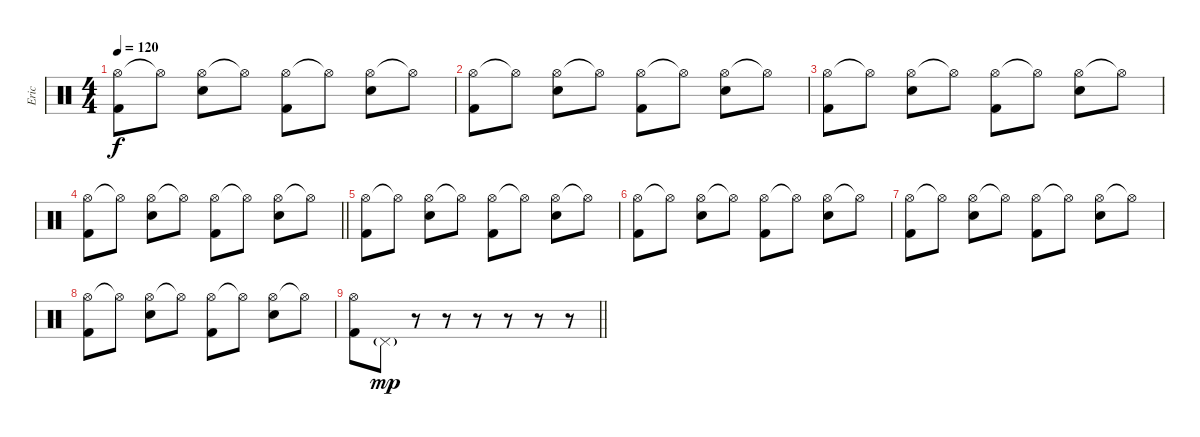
\track ("Eric" "Eric") {instrument percussion}
\staff {score}
\articulation defaults
\ts (4 4)
\tempo 120
\clef neutral
\ks c
("Hi-Hat (open)" "Kick (hit) 2").8{dy f} "Hi-Hat (open)"{t}.8 ("Hi-Hat (open)" "Snare (hit) 2").8 "Hi-Hat (open)"{t}.8 ("Hi-Hat (open)" "Kick (hit) 2").8 "Hi-Hat (open)"{t}.8 ("Hi-Hat (open)" "Snare (hit) 2").8 "Hi-Hat (open)"{t}.8 |
("Hi-Hat (open)" "Kick (hit) 2").8 "Hi-Hat (open)"{t}.8 ("Hi-Hat (open)" "Snare (hit) 2").8 "Hi-Hat (open)"{t}.8 ("Hi-Hat (open)" "Kick (hit) 2").8 "Hi-Hat (open)"{t}.8 ("Hi-Hat (open)" "Snare (hit) 2").8 "Hi-Hat (open)"{t}.8 |
("Hi-Hat (open)" "Kick (hit) 2").8 "Hi-Hat (open)"{t}.8 ("Hi-Hat (open)" "Snare (hit) 2").8 "Hi-Hat (open)"{t}.8 ("Hi-Hat (open)" "Kick (hit) 2").8 "Hi-Hat (open)"{t}.8 ("Hi-Hat (open)" "Snare (hit) 2").8 "Hi-Hat (open)"{t}.8 |
\barLineRight lightlight
("Hi-Hat (open)" "Kick (hit) 2").8 "Hi-Hat (open)"{t}.8 ("Hi-Hat (open)" "Snare (hit) 2").8 "Hi-Hat (open)"{t}.8 ("Hi-Hat (open)" "Kick (hit) 2").8 "Hi-Hat (open)"{t}.8 ("Hi-Hat (open)" "Snare (hit) 2").8 "Hi-Hat (open)"{t}.8 |
\section ("" "")
("Hi-Hat (open)" "Kick (hit) 2").8 "Hi-Hat (open)"{t}.8 ("Hi-Hat (open)" "Snare (hit) 2").8 "Hi-Hat (open)"{t}.8 ("Hi-Hat (open)" "Kick (hit) 2").8 "Hi-Hat (open)"{t}.8 ("Hi-Hat (open)" "Snare (hit) 2").8 "Hi-Hat (open)"{t}.8 |
("Hi-Hat (open)" "Kick (hit) 2").8 "Hi-Hat (open)"{t}.8 ("Hi-Hat (open)" "Snare (hit) 2").8 "Hi-Hat (open)"{t}.8 ("Hi-Hat (open)" "Kick (hit) 2").8 "Hi-Hat (open)"{t}.8 ("Hi-Hat (open)" "Snare (hit) 2").8 "Hi-Hat (open)"{t}.8 |
("Hi-Hat (open)" "Kick (hit) 2").8 "Hi-Hat (open)"{t}.8 ("Hi-Hat (open)" "Snare (hit) 2").8 "Hi-Hat (open)"{t}.8 ("Hi-Hat (open)" "Kick (hit) 2").8 "Hi-Hat (open)"{t}.8 ("Hi-Hat (open)" "Snare (hit) 2").8 "Hi-Hat (open)"{t}.8 |
("Hi-Hat (open)" "Kick (hit) 2").8 "Hi-Hat (open)"{t}.8 ("Hi-Hat (open)" "Snare (hit) 2").8 "Hi-Hat (open)"{t}.8 ("Hi-Hat (open)" "Kick (hit) 2").8 "Hi-Hat (open)"{t}.8 ("Hi-Hat (open)" "Snare (hit) 2").8 "Hi-Hat (open)"{t}.8 |
\barLineRight lightlight
("Hi-Hat (open)" "Kick (hit) 2").8 "Pedal Hi-Hat (hit)"{g}.8{dy mp} r.8 r.8 r.8 r.8 r.8 r.8
